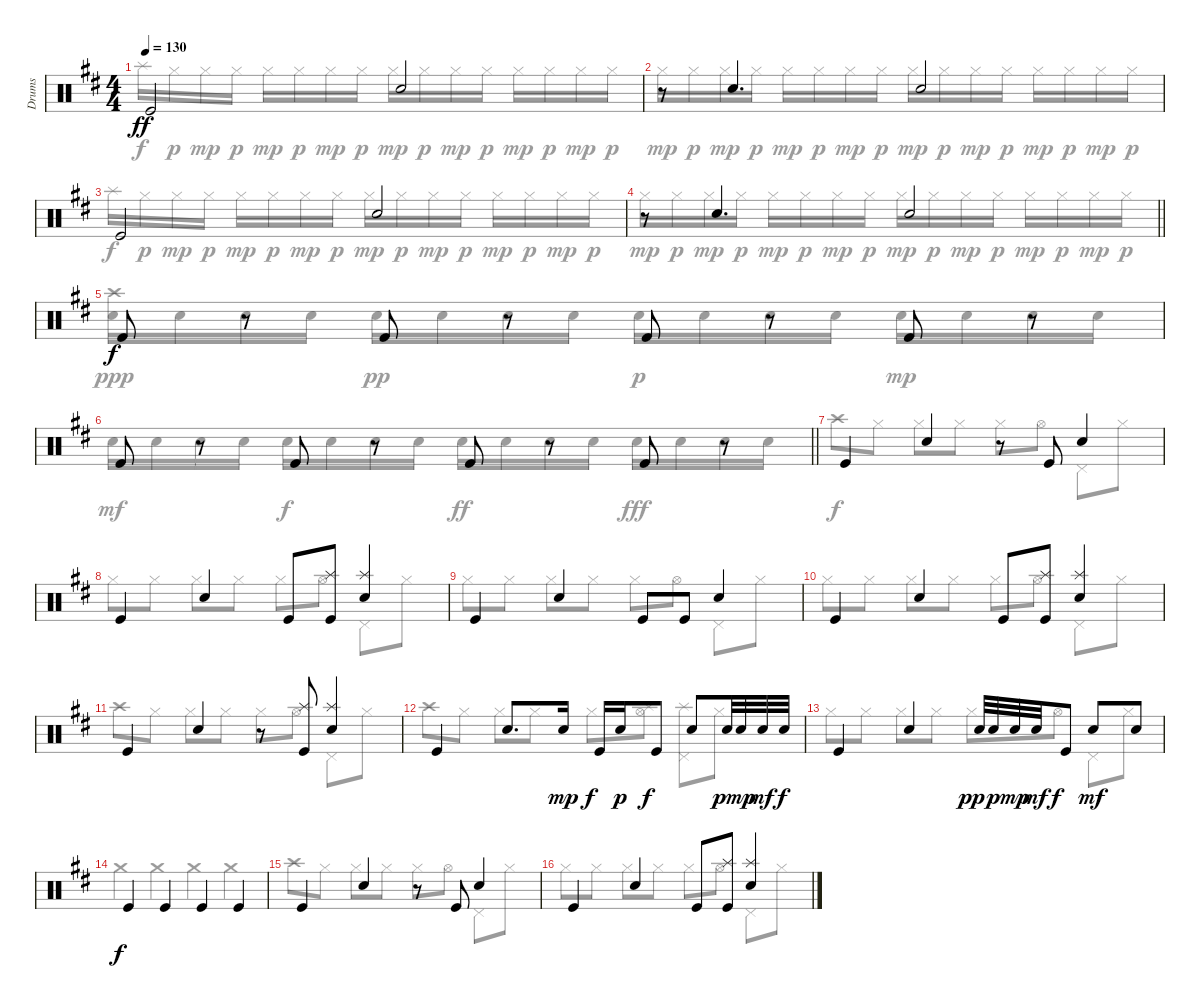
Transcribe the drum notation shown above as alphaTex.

\track ("Drums" "Drums") {instrument percussion}
\staff {score}
\articulation defaults
\voice
\ts (4 4)
\tempo 130
\clef neutral
\ks d "Kick (hit)".2{dy ff} "Snare (hit) 2".2
|
r.8 "Snare (hit) 2".4{d} "Snare (hit) 2".2 |
"Kick (hit)".2 "Snare (hit) 2".2 |
\barLineRight lightlight
r.8 "Snare (hit) 2".4{d} "Snare (hit) 2".2 |
"Kick (hit)".8{dy f} r.8 "Kick (hit)".8 r.8 "Kick (hit)".8 r.8 "Kick (hit)".8 r.8 |
\barLineRight lightlight "Kick (hit)".8
r.8 "Kick (hit)".8 r.8 "Kick (hit)".8 r.8 "Kick (hit)".8 r.8 |
"Kick (hit)".4 "Snare (hit) 2".4 r.8 "Kick (hit)".8 "Snare (hit) 2".4 |
"Kick (hit)".4 "Snare (hit) 2".4 "Kick (hit)".8 ("Splash (hit)" "Kick (hit)").8 ("Splash (hit)" "Snare (hit) 2").4 |
"Kick (hit)".4 "Snare (hit) 2".4 "Kick (hit)".8 "Kick (hit)".8 "Snare (hit) 2".4 |
"Kick (hit)".4 "Snare (hit) 2".4 "Kick (hit)".8 ("Splash (hit)" "Kick (hit)").8 ("Splash (hit)" "Snare (hit) 2").4 |
"Kick (hit)".4 "Snare (hit) 2".4 r.8 ("Splash (hit)" "Kick (hit)").8 ("Splash (hit)" "Snare (hit) 2").4 |
"Kick (hit)".4 "Snare (hit) 2".8{d} "Snare (hit) 2".16{dy mp} "Kick (hit)".16{dy f} "Snare (hit) 2".16{dy p} "Kick (hit)".8{dy f} "Snare (hit) 2".8 "Snare (hit) 2".32{dy p} "Snare (hit) 2".32{dy mp} "Snare (hit) 2".32{dy mf} "Snare (hit) 2".32{dy f} |
"Kick (hit)".4 "Snare (hit) 2".4 "Snare (hit) 2".32{dy pp} "Snare (hit) 2".32{dy p} "Snare (hit) 2".32{dy mp} "Snare (hit) 2".32{dy mf} "Kick (hit)".8{dy f} "Snare (hit) 2".8{dy mf} "Snare (hit) 2".8 |
"Kick (hit)".4{dy f} "Kick (hit)".4 "Kick (hit)".4 "Kick (hit)".4 |
"Kick (hit)".4 "Snare (hit) 2".4 r.8 "Kick (hit)".8 "Snare (hit) 2".4 |
"Kick (hit)".4 "Snare (hit) 2".4 "Kick (hit)".8 ("Splash (hit)" "Kick (hit)").8 ("Splash (hit)" "Snare (hit) 2").4
\voice
\clef neutral
\ottava regular
\simile none
\ks d "Splash (hit)".16{dy f} "Hi-Hat (closed)".16{dy p} "Hi-Hat (closed)".16{dy mp} "Hi-Hat (closed)".16{dy p} "Hi-Hat (closed)".16{dy mp} "Hi-Hat (closed)".16{dy p} "Hi-Hat (closed)".16{dy mp} "Hi-Hat (closed)".16{dy p} "Hi-Hat (closed)".16{dy mp} "Hi-Hat (closed)".16{dy p} "Hi-Hat (closed)".16{dy mp} "Hi-Hat (closed)".16{dy p} "Hi-Hat (closed)".16{dy mp} "Hi-Hat (closed)".16{dy p} "Hi-Hat (closed)".16{dy mp} "Hi-Hat (closed)".16{dy p}
|
"Hi-Hat (closed)".16{dy mp} "Hi-Hat (closed)".16{dy p} "Hi-Hat (closed)".16{dy mp} "Hi-Hat (closed)".16{dy p} "Hi-Hat (closed)".16{dy mp} "Hi-Hat (closed)".16{dy p} "Hi-Hat (closed)".16{dy mp} "Hi-Hat (closed)".16{dy p} "Hi-Hat (closed)".16{dy mp} "Hi-Hat (closed)".16{dy p} "Hi-Hat (closed)".16{dy mp} "Hi-Hat (closed)".16{dy p} "Hi-Hat (closed)".16{dy mp} "Hi-Hat (closed)".16{dy p} "Hi-Hat (closed)".16{dy mp} "Hi-Hat (closed)".16{dy p} |
"Splash (hit)".16{dy f} "Hi-Hat (closed)".16{dy p} "Hi-Hat (closed)".16{dy mp} "Hi-Hat (closed)".16{dy p} "Hi-Hat (closed)".16{dy mp} "Hi-Hat (closed)".16{dy p} "Hi-Hat (closed)".16{dy mp} "Hi-Hat (closed)".16{dy p} "Hi-Hat (closed)".16{dy mp} "Hi-Hat (closed)".16{dy p} "Hi-Hat (closed)".16{dy mp} "Hi-Hat (closed)".16{dy p} "Hi-Hat (closed)".16{dy mp} "Hi-Hat (closed)".16{dy p} "Hi-Hat (closed)".16{dy mp} "Hi-Hat (closed)".16{dy p} |
\barLineRight lightlight "Hi-Hat (closed)".16{dy mp} "Hi-Hat (closed)".16{dy p} "Hi-Hat (closed)".16{dy mp} "Hi-Hat (closed)".16{dy p} "Hi-Hat (closed)".16{dy mp} "Hi-Hat (closed)".16{dy p} "Hi-Hat (closed)".16{dy mp} "Hi-Hat (closed)".16{dy p} "Hi-Hat (closed)".16{dy mp} "Hi-Hat (closed)".16{dy p} "Hi-Hat (closed)".16{dy mp} "Hi-Hat (closed)".16{dy p} "Hi-Hat (closed)".16{dy mp} "Hi-Hat (closed)".16{dy p} "Hi-Hat (closed)".16{dy mp} "Hi-Hat (closed)".16{dy p}
|
("Snare (hit) 2" "Crash high (hit)").16{dy ppp} "Snare (hit) 2".16 "Snare (hit) 2".16 "Snare (hit) 2".16 "Snare (hit) 2".16{dy pp} "Snare (hit) 2".16 "Snare (hit) 2".16 "Snare (hit) 2".16 "Snare (hit) 2".16{dy p} "Snare (hit) 2".16 "Snare (hit) 2".16 "Snare (hit) 2".16 "Snare (hit) 2".16{dy mp} "Snare (hit) 2".16 "Snare (hit) 2".16 "Snare (hit) 2".16 |
\barLineRight lightlight "Snare (hit) 2".16{dy mf} "Snare (hit) 2".16 "Snare (hit) 2".16 "Snare (hit) 2".16 "Snare (hit) 2".16{dy f} "Snare (hit) 2".16 "Snare (hit) 2".16 "Snare (hit) 2".16 "Snare (hit) 2".16{dy ff} "Snare (hit) 2".16 "Snare (hit) 2".16 "Snare (hit) 2".16 "Snare (hit) 2".16{dy fff} "Snare (hit) 2".16 "Snare (hit) 2".16 "Snare (hit) 2".16
|
"Crash high (hit)".8{dy f} "Hi-Hat (closed)".8 "Hi-Hat (closed)".8 "Hi-Hat (closed)".8 "Hi-Hat (closed)".8 "Hi-Hat (open)".8 "Pedal Hi-Hat (hit)".8 "Hi-Hat (closed)".8 |
"Hi-Hat (closed)".8 "Hi-Hat (closed)".8 "Hi-Hat (closed)".8 "Hi-Hat (closed)".8 "Hi-Hat (closed)".8 "Hi-Hat (open)".8 "Pedal Hi-Hat (hit)".8 "Hi-Hat (closed)".8 |
"Hi-Hat (closed)".8 "Hi-Hat (closed)".8 "Hi-Hat (closed)".8 "Hi-Hat (closed)".8 "Hi-Hat (closed)".8 "Hi-Hat (open)".8 "Pedal Hi-Hat (hit)".8 "Hi-Hat (closed)".8 |
"Hi-Hat (closed)".8 "Hi-Hat (closed)".8 "Hi-Hat (closed)".8 "Hi-Hat (closed)".8 "Hi-Hat (closed)".8 "Hi-Hat (open)".8 "Pedal Hi-Hat (hit)".8 "Hi-Hat (closed)".8 |
"Crash high (hit)".8 "Hi-Hat (closed)".8 "Hi-Hat (closed)".8 "Hi-Hat (closed)".8 "Hi-Hat (closed)".8 "Hi-Hat (open)".8 "Pedal Hi-Hat (hit)".8 "Hi-Hat (closed)".8 |
"Crash high (hit)".8 "Hi-Hat (closed)".8 "Hi-Hat (closed)".8 "Hi-Hat (closed)".8 "Hi-Hat (closed)".8 ("Hi-Hat (open)" "Splash (hit)").8 ("Pedal Hi-Hat (hit)" "Splash (hit)").8 "Hi-Hat (closed)".8 |
"Hi-Hat (closed)".8 "Hi-Hat (closed)".8 "Hi-Hat (closed)".8 "Hi-Hat (closed)".8 "Hi-Hat (closed)".8 "Hi-Hat (open)".8 "Pedal Hi-Hat (hit)".8 "Hi-Hat (closed)".8 |
"Crash medium (hit)".4 "Crash medium (hit)".4 "Crash medium (hit)".4 "Crash medium (hit)".4 |
"Crash high (hit)".8 "Hi-Hat (closed)".8 "Hi-Hat (closed)".8 "Hi-Hat (closed)".8 "Hi-Hat (closed)".8 "Hi-Hat (open)".8 "Pedal Hi-Hat (hit)".8 "Hi-Hat (closed)".8 |
"Hi-Hat (closed)".8 "Hi-Hat (closed)".8 "Hi-Hat (closed)".8 "Hi-Hat (closed)".8 "Hi-Hat (closed)".8 "Hi-Hat (open)".8 "Pedal Hi-Hat (hit)".8 "Hi-Hat (closed)".8
